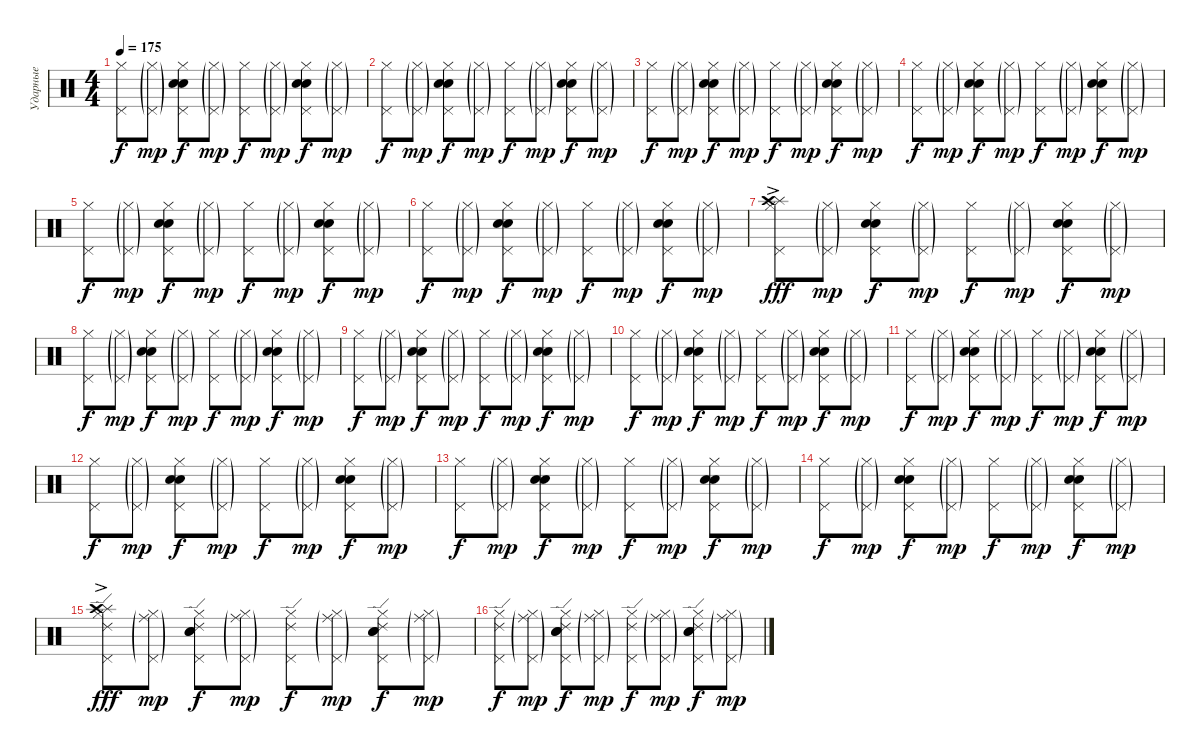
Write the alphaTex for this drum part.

\track ("Ударные" "Ударные") {instrument percussion}
\staff {score}
\articulation defaults
\ts (4 4)
\tempo 175
\clef neutral
\ks c
("Hi-Hat (closed)" "Pedal Hi-Hat (hit)").8{dy f} ("Hi-Hat (closed)"{g} "Pedal Hi-Hat (hit)"{g}).8{dy mp} ("Hi-Hat (closed)" "Pedal Hi-Hat (hit)" "Snare (hit) 2" "Electric Snare (hit)").8{dy f} ("Hi-Hat (closed)"{g} "Pedal Hi-Hat (hit)"{g}).8{dy mp} ("Hi-Hat (closed)" "Pedal Hi-Hat (hit)").8{dy f} ("Hi-Hat (closed)"{g} "Pedal Hi-Hat (hit)"{g}).8{dy mp} ("Hi-Hat (closed)" "Pedal Hi-Hat (hit)" "Snare (hit) 2" "Electric Snare (hit)").8{dy f} ("Hi-Hat (closed)"{g} "Pedal Hi-Hat (hit)"{g}).8{dy mp} |
("Hi-Hat (closed)" "Pedal Hi-Hat (hit)").8{dy f} ("Hi-Hat (closed)"{g} "Pedal Hi-Hat (hit)"{g}).8{dy mp} ("Hi-Hat (closed)" "Pedal Hi-Hat (hit)" "Snare (hit) 2" "Electric Snare (hit)").8{dy f} ("Hi-Hat (closed)"{g} "Pedal Hi-Hat (hit)"{g}).8{dy mp} ("Hi-Hat (closed)" "Pedal Hi-Hat (hit)").8{dy f} ("Hi-Hat (closed)"{g} "Pedal Hi-Hat (hit)"{g}).8{dy mp} ("Hi-Hat (closed)" "Pedal Hi-Hat (hit)" "Snare (hit) 2" "Electric Snare (hit)").8{dy f} ("Hi-Hat (closed)"{g} "Pedal Hi-Hat (hit)"{g}).8{dy mp} |
("Hi-Hat (closed)" "Pedal Hi-Hat (hit)").8{dy f} ("Hi-Hat (closed)"{g} "Pedal Hi-Hat (hit)"{g}).8{dy mp} ("Hi-Hat (closed)" "Pedal Hi-Hat (hit)" "Snare (hit) 2" "Electric Snare (hit)").8{dy f} ("Hi-Hat (closed)"{g} "Pedal Hi-Hat (hit)"{g}).8{dy mp} ("Hi-Hat (closed)" "Pedal Hi-Hat (hit)").8{dy f} ("Hi-Hat (closed)"{g} "Pedal Hi-Hat (hit)"{g}).8{dy mp} ("Hi-Hat (closed)" "Pedal Hi-Hat (hit)" "Snare (hit) 2" "Electric Snare (hit)").8{dy f} ("Hi-Hat (closed)"{g} "Pedal Hi-Hat (hit)"{g}).8{dy mp} |
("Hi-Hat (closed)" "Pedal Hi-Hat (hit)").8{dy f} ("Hi-Hat (closed)"{g} "Pedal Hi-Hat (hit)"{g}).8{dy mp} ("Hi-Hat (closed)" "Pedal Hi-Hat (hit)" "Snare (hit) 2" "Electric Snare (hit)").8{dy f} ("Hi-Hat (closed)"{g} "Pedal Hi-Hat (hit)"{g}).8{dy mp} ("Hi-Hat (closed)" "Pedal Hi-Hat (hit)").8{dy f} ("Hi-Hat (closed)"{g} "Pedal Hi-Hat (hit)"{g}).8{dy mp} ("Hi-Hat (closed)" "Pedal Hi-Hat (hit)" "Snare (hit) 2" "Electric Snare (hit)").8{dy f} ("Hi-Hat (closed)"{g} "Pedal Hi-Hat (hit)"{g}).8{dy mp} |
("Hi-Hat (closed)" "Pedal Hi-Hat (hit)").8{dy f} ("Hi-Hat (closed)"{g} "Pedal Hi-Hat (hit)"{g}).8{dy mp} ("Hi-Hat (closed)" "Pedal Hi-Hat (hit)" "Snare (hit) 2" "Electric Snare (hit)").8{dy f} ("Hi-Hat (closed)"{g} "Pedal Hi-Hat (hit)"{g}).8{dy mp} ("Hi-Hat (closed)" "Pedal Hi-Hat (hit)").8{dy f} ("Hi-Hat (closed)"{g} "Pedal Hi-Hat (hit)"{g}).8{dy mp} ("Hi-Hat (closed)" "Pedal Hi-Hat (hit)" "Snare (hit) 2" "Electric Snare (hit)").8{dy f} ("Hi-Hat (closed)"{g} "Pedal Hi-Hat (hit)"{g}).8{dy mp} |
("Hi-Hat (closed)" "Pedal Hi-Hat (hit)").8{dy f} ("Hi-Hat (closed)"{g} "Pedal Hi-Hat (hit)"{g}).8{dy mp} ("Hi-Hat (closed)" "Pedal Hi-Hat (hit)" "Snare (hit) 2" "Electric Snare (hit)").8{dy f} ("Hi-Hat (closed)"{g} "Pedal Hi-Hat (hit)"{g}).8{dy mp} ("Hi-Hat (closed)" "Pedal Hi-Hat (hit)").8{dy f} ("Hi-Hat (closed)"{g} "Pedal Hi-Hat (hit)"{g}).8{dy mp} ("Hi-Hat (closed)" "Pedal Hi-Hat (hit)" "Snare (hit) 2" "Electric Snare (hit)").8{dy f} ("Hi-Hat (closed)"{g} "Pedal Hi-Hat (hit)"{g}).8{dy mp} |
("Hi-Hat (closed)" "Pedal Hi-Hat (hit)" "Splash (hit)"{ac} "Crash high (hit)"{ac}).8{dy fff} ("Hi-Hat (closed)"{g} "Pedal Hi-Hat (hit)"{g}).8{dy mp} ("Hi-Hat (closed)" "Pedal Hi-Hat (hit)" "Snare (hit) 2" "Electric Snare (hit)").8{dy f} ("Hi-Hat (closed)"{g} "Pedal Hi-Hat (hit)"{g}).8{dy mp} ("Hi-Hat (closed)" "Pedal Hi-Hat (hit)").8{dy f} ("Hi-Hat (closed)"{g} "Pedal Hi-Hat (hit)"{g}).8{dy mp} ("Hi-Hat (closed)" "Pedal Hi-Hat (hit)" "Snare (hit) 2" "Electric Snare (hit)").8{dy f} ("Hi-Hat (closed)"{g} "Pedal Hi-Hat (hit)"{g}).8{dy mp} |
("Hi-Hat (closed)" "Pedal Hi-Hat (hit)").8{dy f} ("Hi-Hat (closed)"{g} "Pedal Hi-Hat (hit)"{g}).8{dy mp} ("Hi-Hat (closed)" "Pedal Hi-Hat (hit)" "Snare (hit) 2" "Electric Snare (hit)").8{dy f} ("Hi-Hat (closed)"{g} "Pedal Hi-Hat (hit)"{g}).8{dy mp} ("Hi-Hat (closed)" "Pedal Hi-Hat (hit)").8{dy f} ("Hi-Hat (closed)"{g} "Pedal Hi-Hat (hit)"{g}).8{dy mp} ("Hi-Hat (closed)" "Pedal Hi-Hat (hit)" "Snare (hit) 2" "Electric Snare (hit)").8{dy f} ("Hi-Hat (closed)"{g} "Pedal Hi-Hat (hit)"{g}).8{dy mp} |
("Hi-Hat (closed)" "Pedal Hi-Hat (hit)").8{dy f} ("Hi-Hat (closed)"{g} "Pedal Hi-Hat (hit)"{g}).8{dy mp} ("Hi-Hat (closed)" "Pedal Hi-Hat (hit)" "Snare (hit) 2" "Electric Snare (hit)").8{dy f} ("Hi-Hat (closed)"{g} "Pedal Hi-Hat (hit)"{g}).8{dy mp} ("Hi-Hat (closed)" "Pedal Hi-Hat (hit)").8{dy f} ("Hi-Hat (closed)"{g} "Pedal Hi-Hat (hit)"{g}).8{dy mp} ("Hi-Hat (closed)" "Pedal Hi-Hat (hit)" "Snare (hit) 2" "Electric Snare (hit)").8{dy f} ("Hi-Hat (closed)"{g} "Pedal Hi-Hat (hit)"{g}).8{dy mp} |
("Hi-Hat (closed)" "Pedal Hi-Hat (hit)").8{dy f} ("Hi-Hat (closed)"{g} "Pedal Hi-Hat (hit)"{g}).8{dy mp} ("Hi-Hat (closed)" "Pedal Hi-Hat (hit)" "Snare (hit) 2" "Electric Snare (hit)").8{dy f} ("Hi-Hat (closed)"{g} "Pedal Hi-Hat (hit)"{g}).8{dy mp} ("Hi-Hat (closed)" "Pedal Hi-Hat (hit)").8{dy f} ("Hi-Hat (closed)"{g} "Pedal Hi-Hat (hit)"{g}).8{dy mp} ("Hi-Hat (closed)" "Pedal Hi-Hat (hit)" "Snare (hit) 2" "Electric Snare (hit)").8{dy f} ("Hi-Hat (closed)"{g} "Pedal Hi-Hat (hit)"{g}).8{dy mp} |
("Hi-Hat (closed)" "Pedal Hi-Hat (hit)").8{dy f} ("Hi-Hat (closed)"{g} "Pedal Hi-Hat (hit)"{g}).8{dy mp} ("Hi-Hat (closed)" "Pedal Hi-Hat (hit)" "Snare (hit) 2" "Electric Snare (hit)").8{dy f} ("Hi-Hat (closed)"{g} "Pedal Hi-Hat (hit)"{g}).8{dy mp} ("Hi-Hat (closed)" "Pedal Hi-Hat (hit)").8{dy f} ("Hi-Hat (closed)"{g} "Pedal Hi-Hat (hit)"{g}).8{dy mp} ("Hi-Hat (closed)" "Pedal Hi-Hat (hit)" "Snare (hit) 2" "Electric Snare (hit)").8{dy f} ("Hi-Hat (closed)"{g} "Pedal Hi-Hat (hit)"{g}).8{dy mp} |
("Hi-Hat (closed)" "Pedal Hi-Hat (hit)").8{dy f} ("Hi-Hat (closed)"{g} "Pedal Hi-Hat (hit)"{g}).8{dy mp} ("Hi-Hat (closed)" "Pedal Hi-Hat (hit)" "Snare (hit) 2" "Electric Snare (hit)").8{dy f} ("Hi-Hat (closed)"{g} "Pedal Hi-Hat (hit)"{g}).8{dy mp} ("Hi-Hat (closed)" "Pedal Hi-Hat (hit)").8{dy f} ("Hi-Hat (closed)"{g} "Pedal Hi-Hat (hit)"{g}).8{dy mp} ("Hi-Hat (closed)" "Pedal Hi-Hat (hit)" "Snare (hit) 2" "Electric Snare (hit)").8{dy f} ("Hi-Hat (closed)"{g} "Pedal Hi-Hat (hit)"{g}).8{dy mp} |
("Hi-Hat (closed)" "Pedal Hi-Hat (hit)").8{dy f} ("Hi-Hat (closed)"{g} "Pedal Hi-Hat (hit)"{g}).8{dy mp} ("Hi-Hat (closed)" "Pedal Hi-Hat (hit)" "Snare (hit) 2" "Electric Snare (hit)").8{dy f} ("Hi-Hat (closed)"{g} "Pedal Hi-Hat (hit)"{g}).8{dy mp} ("Hi-Hat (closed)" "Pedal Hi-Hat (hit)").8{dy f} ("Hi-Hat (closed)"{g} "Pedal Hi-Hat (hit)"{g}).8{dy mp} ("Hi-Hat (closed)" "Pedal Hi-Hat (hit)" "Snare (hit) 2" "Electric Snare (hit)").8{dy f} ("Hi-Hat (closed)"{g} "Pedal Hi-Hat (hit)"{g}).8{dy mp} |
("Hi-Hat (closed)" "Pedal Hi-Hat (hit)").8{dy f} ("Hi-Hat (closed)"{g} "Pedal Hi-Hat (hit)"{g}).8{dy mp} ("Hi-Hat (closed)" "Pedal Hi-Hat (hit)" "Snare (hit) 2" "Electric Snare (hit)").8{dy f} ("Hi-Hat (closed)"{g} "Pedal Hi-Hat (hit)"{g}).8{dy mp} ("Hi-Hat (closed)" "Pedal Hi-Hat (hit)").8{dy f} ("Hi-Hat (closed)"{g} "Pedal Hi-Hat (hit)"{g}).8{dy mp} ("Hi-Hat (closed)" "Pedal Hi-Hat (hit)" "Snare (hit) 2" "Electric Snare (hit)").8{dy f} ("Hi-Hat (closed)"{g} "Pedal Hi-Hat (hit)"{g}).8{dy mp} |
("Ride (edge) 2" "Hi-Hat (closed)" "Pedal Hi-Hat (hit)" "Splash (hit)"{ac} "Crash high (hit)"{ac}).8{dy fff} ("Ride (middle)"{g} "Hi-Hat (closed)"{g} "Pedal Hi-Hat (hit)"{g}).8{dy mp} ("Ride (edge) 2" "Hi-Hat (closed)" "Pedal Hi-Hat (hit)" "Snare (hit) 2" "Electric Snare (hit)").8{dy f} ("Ride (middle)"{g} "Hi-Hat (closed)"{g} "Pedal Hi-Hat (hit)"{g}).8{dy mp} ("Ride (edge) 2" "Hi-Hat (closed)" "Pedal Hi-Hat (hit)").8{dy f} ("Ride (middle)"{g} "Hi-Hat (closed)"{g} "Pedal Hi-Hat (hit)"{g}).8{dy mp} ("Ride (edge) 2" "Hi-Hat (closed)" "Pedal Hi-Hat (hit)" "Snare (hit) 2" "Electric Snare (hit)").8{dy f} ("Ride (middle)"{g} "Hi-Hat (closed)"{g} "Pedal Hi-Hat (hit)"{g}).8{dy mp} |
("Ride (edge) 2" "Hi-Hat (closed)" "Pedal Hi-Hat (hit)").8{dy f} ("Ride (middle)"{g} "Hi-Hat (closed)"{g} "Pedal Hi-Hat (hit)"{g}).8{dy mp} ("Ride (edge) 2" "Hi-Hat (closed)" "Pedal Hi-Hat (hit)" "Snare (hit) 2" "Electric Snare (hit)").8{dy f} ("Ride (middle)"{g} "Hi-Hat (closed)"{g} "Pedal Hi-Hat (hit)"{g}).8{dy mp} ("Ride (edge) 2" "Hi-Hat (closed)" "Pedal Hi-Hat (hit)").8{dy f} ("Ride (middle)"{g} "Hi-Hat (closed)"{g} "Pedal Hi-Hat (hit)"{g}).8{dy mp} ("Ride (edge) 2" "Hi-Hat (closed)" "Pedal Hi-Hat (hit)" "Snare (hit) 2" "Electric Snare (hit)").8{dy f} ("Ride (middle)"{g} "Hi-Hat (closed)"{g} "Pedal Hi-Hat (hit)"{g}).8{dy mp}
